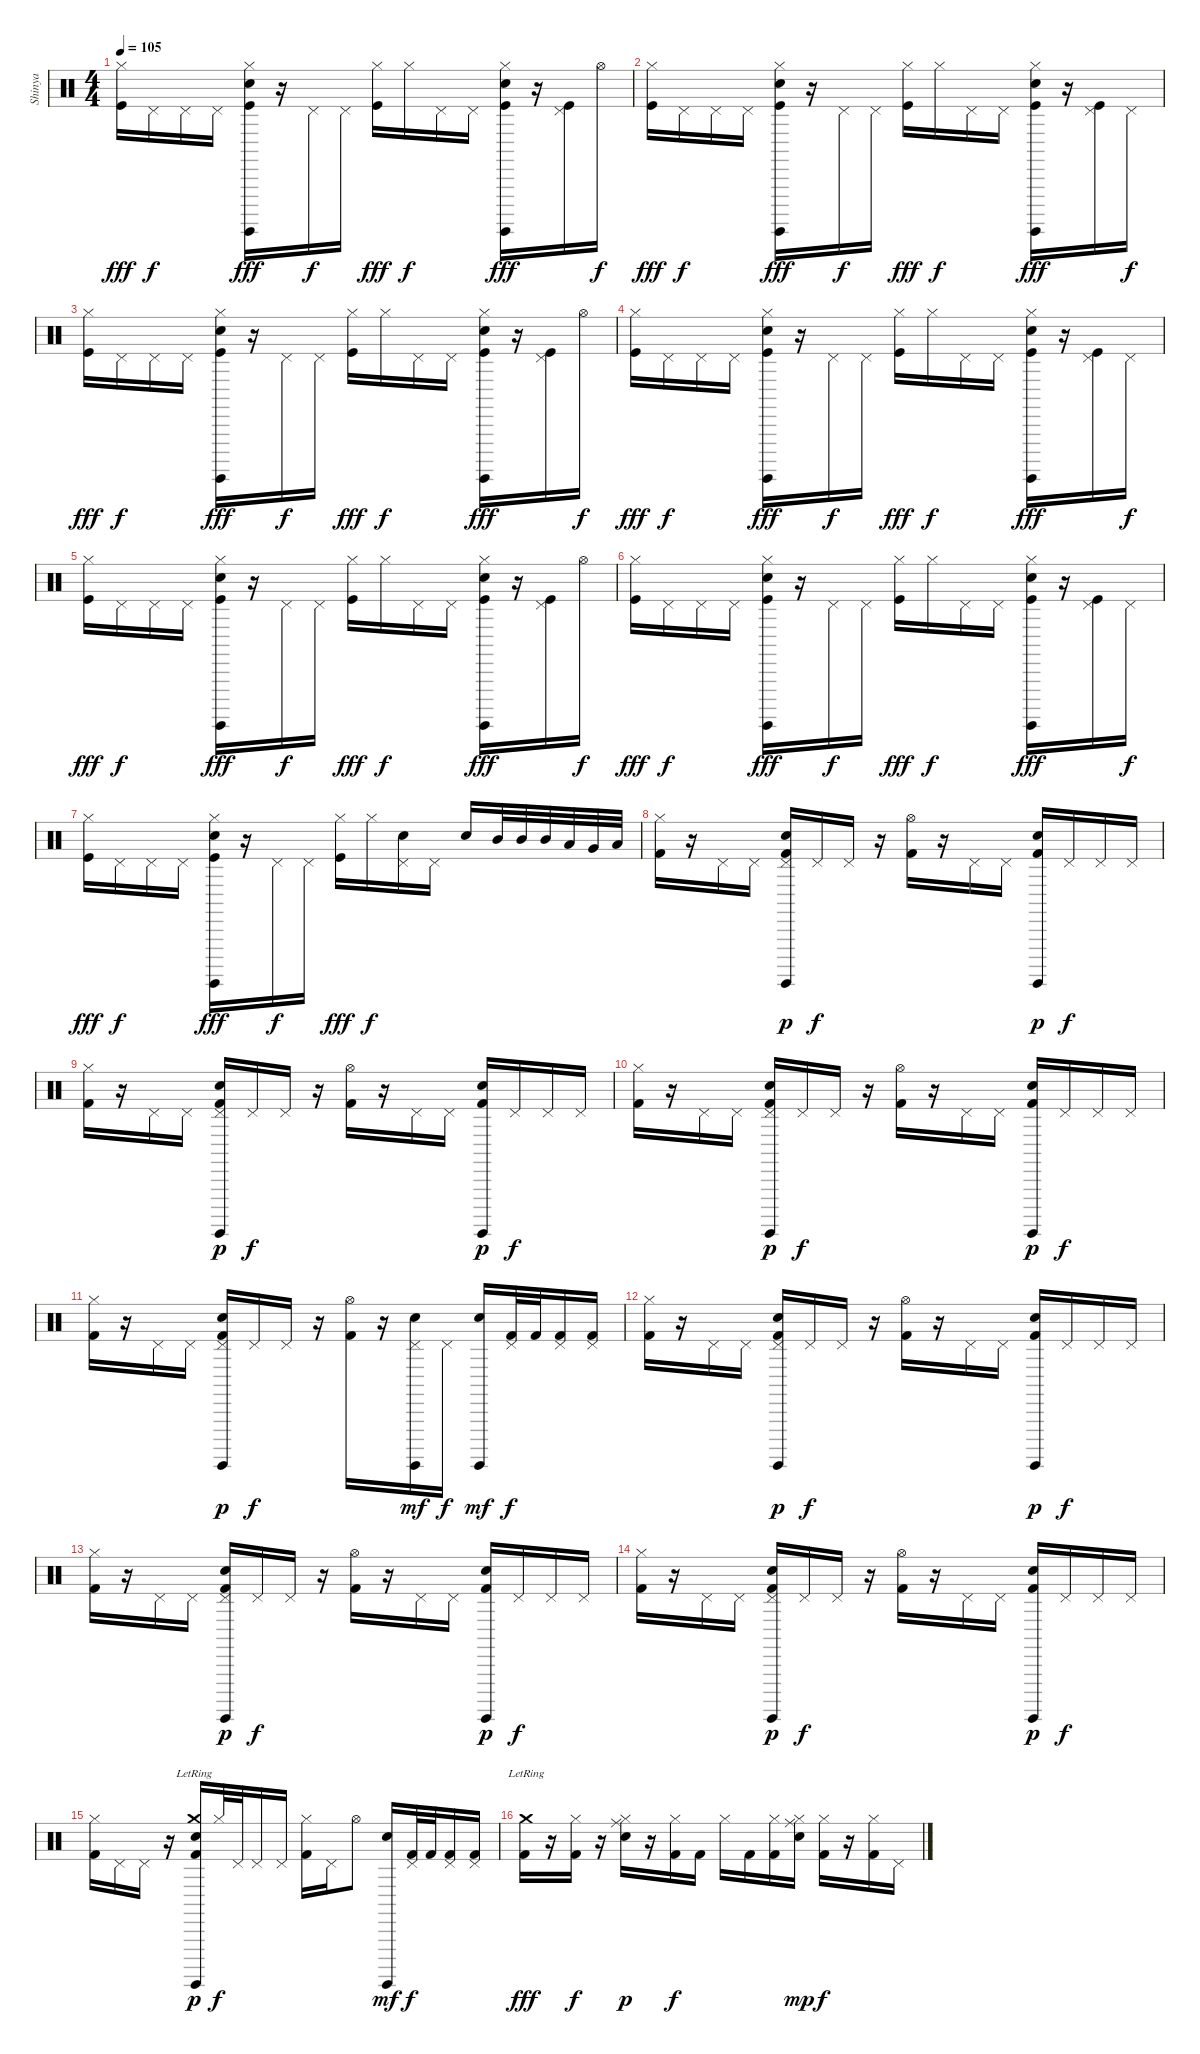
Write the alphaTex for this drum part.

\track ("Shinya" "Shinya") {instrument percussion}
\staff {score}
\articulation defaults
\ts (4 4)
\tempo 105
\clef neutral
\ks c
("Hi-Hat (closed)" "Kick (hit)").16{dy fff} "Pedal Hi-Hat (hit)".16{dy f} "Pedal Hi-Hat (hit)".16 "Pedal Hi-Hat (hit)".16 ("Hi-Hat (closed)" "Surdo (hit)" "Electric Snare (hit)" "Kick (hit)").16{dy fff} r.16 "Pedal Hi-Hat (hit)".16{dy f} "Pedal Hi-Hat (hit)".16 ("Hi-Hat (closed)" "Kick (hit)").16{dy fff} "Hi-Hat (closed)".16{dy f} "Pedal Hi-Hat (hit)".16 "Pedal Hi-Hat (hit)".16 ("Hi-Hat (closed)" "Surdo (hit)" "Electric Snare (hit)" "Kick (hit)").16{dy fff} r.16 ("Pedal Hi-Hat (hit)" "Kick (hit)").16 "Hi-Hat (open)".16{dy f} |
("Hi-Hat (closed)" "Kick (hit)").16{dy fff} "Pedal Hi-Hat (hit)".16{dy f} "Pedal Hi-Hat (hit)".16 "Pedal Hi-Hat (hit)".16 ("Hi-Hat (closed)" "Surdo (hit)" "Electric Snare (hit)" "Kick (hit)").16{dy fff} r.16 "Pedal Hi-Hat (hit)".16{dy f} "Pedal Hi-Hat (hit)".16 ("Hi-Hat (closed)" "Kick (hit)").16{dy fff} "Hi-Hat (closed)".16{dy f} "Pedal Hi-Hat (hit)".16 "Pedal Hi-Hat (hit)".16 ("Hi-Hat (closed)" "Surdo (hit)" "Electric Snare (hit)" "Kick (hit)").16{dy fff} r.16 ("Pedal Hi-Hat (hit)" "Kick (hit)").16 "Pedal Hi-Hat (hit)".16{dy f} |
("Hi-Hat (closed)" "Kick (hit)").16{dy fff} "Pedal Hi-Hat (hit)".16{dy f} "Pedal Hi-Hat (hit)".16 "Pedal Hi-Hat (hit)".16 ("Hi-Hat (closed)" "Surdo (hit)" "Electric Snare (hit)" "Kick (hit)").16{dy fff} r.16 "Pedal Hi-Hat (hit)".16{dy f} "Pedal Hi-Hat (hit)".16 ("Hi-Hat (closed)" "Kick (hit)").16{dy fff} "Hi-Hat (closed)".16{dy f} "Pedal Hi-Hat (hit)".16 "Pedal Hi-Hat (hit)".16 ("Hi-Hat (closed)" "Surdo (hit)" "Electric Snare (hit)" "Kick (hit)").16{dy fff} r.16 ("Pedal Hi-Hat (hit)" "Kick (hit)").16 "Hi-Hat (open)".16{dy f} |
("Hi-Hat (closed)" "Kick (hit)").16{dy fff} "Pedal Hi-Hat (hit)".16{dy f} "Pedal Hi-Hat (hit)".16 "Pedal Hi-Hat (hit)".16 ("Hi-Hat (closed)" "Surdo (hit)" "Electric Snare (hit)" "Kick (hit)").16{dy fff} r.16 "Pedal Hi-Hat (hit)".16{dy f} "Pedal Hi-Hat (hit)".16 ("Hi-Hat (closed)" "Kick (hit)").16{dy fff} "Hi-Hat (closed)".16{dy f} "Pedal Hi-Hat (hit)".16 "Pedal Hi-Hat (hit)".16 ("Hi-Hat (closed)" "Surdo (hit)" "Electric Snare (hit)" "Kick (hit)").16{dy fff} r.16 ("Pedal Hi-Hat (hit)" "Kick (hit)").16 "Pedal Hi-Hat (hit)".16{dy f} |
("Hi-Hat (closed)" "Kick (hit)").16{dy fff} "Pedal Hi-Hat (hit)".16{dy f} "Pedal Hi-Hat (hit)".16 "Pedal Hi-Hat (hit)".16 ("Hi-Hat (closed)" "Surdo (hit)" "Electric Snare (hit)" "Kick (hit)").16{dy fff} r.16 "Pedal Hi-Hat (hit)".16{dy f} "Pedal Hi-Hat (hit)".16 ("Hi-Hat (closed)" "Kick (hit)").16{dy fff} "Hi-Hat (closed)".16{dy f} "Pedal Hi-Hat (hit)".16 "Pedal Hi-Hat (hit)".16 ("Hi-Hat (closed)" "Surdo (hit)" "Electric Snare (hit)" "Kick (hit)").16{dy fff} r.16 ("Pedal Hi-Hat (hit)" "Kick (hit)").16 "Hi-Hat (open)".16{dy f} |
("Hi-Hat (closed)" "Kick (hit)").16{dy fff} "Pedal Hi-Hat (hit)".16{dy f} "Pedal Hi-Hat (hit)".16 "Pedal Hi-Hat (hit)".16 ("Hi-Hat (closed)" "Surdo (hit)" "Electric Snare (hit)" "Kick (hit)").16{dy fff} r.16 "Pedal Hi-Hat (hit)".16{dy f} "Pedal Hi-Hat (hit)".16 ("Hi-Hat (closed)" "Kick (hit)").16{dy fff} "Hi-Hat (closed)".16{dy f} "Pedal Hi-Hat (hit)".16 "Pedal Hi-Hat (hit)".16 ("Hi-Hat (closed)" "Surdo (hit)" "Electric Snare (hit)" "Kick (hit)").16{dy fff} r.16 ("Pedal Hi-Hat (hit)" "Kick (hit)").16 "Pedal Hi-Hat (hit)".16{dy f} |
("Hi-Hat (closed)" "Kick (hit)").16{dy fff} "Pedal Hi-Hat (hit)".16{dy f} "Pedal Hi-Hat (hit)".16 "Pedal Hi-Hat (hit)".16 ("Hi-Hat (closed)" "Surdo (hit)" "Electric Snare (hit)" "Kick (hit)").16{dy fff} r.16 "Pedal Hi-Hat (hit)".16{dy f} "Pedal Hi-Hat (hit)".16 ("Hi-Hat (closed)" "Kick (hit)").16{dy fff} "Hi-Hat (closed)".16{dy f} ("Pedal Hi-Hat (hit)" "Electric Snare (hit)").16 "Pedal Hi-Hat (hit)".16 "Electric Snare (hit)".16 "Mid Tom (hit)".32 "Mid Tom (hit)".32 "Mid Tom (hit)".32 "Low Tom (hit)".32 "Very Low Tom (hit)".32 "Low Floor Tom (hit)".32 |
\section ("" "")
("Hi-Hat (closed)" "Kick (hit) 2").16 r.16 "Pedal Hi-Hat (hit)".16 "Pedal Hi-Hat (hit)".16 ("Pedal Hi-Hat (hit)" "Electric Snare (hit)" "Surdo (hit)" "Kick (hit) 2").16{dy p} "Pedal Hi-Hat (hit)".16{dy f} "Pedal Hi-Hat (hit)".16 r.16 ("Hi-Hat (open)" "Kick (hit) 2").16 r.16 "Pedal Hi-Hat (hit)".16 "Pedal Hi-Hat (hit)".16 ("Electric Snare (hit)" "Surdo (hit)" "Kick (hit) 2").16{dy p} "Pedal Hi-Hat (hit)".16{dy f} "Pedal Hi-Hat (hit)".16 "Pedal Hi-Hat (hit)".16 |
("Hi-Hat (closed)" "Kick (hit) 2").16 r.16 "Pedal Hi-Hat (hit)".16 "Pedal Hi-Hat (hit)".16 ("Pedal Hi-Hat (hit)" "Electric Snare (hit)" "Surdo (hit)" "Kick (hit) 2").16{dy p} "Pedal Hi-Hat (hit)".16{dy f} "Pedal Hi-Hat (hit)".16 r.16 ("Hi-Hat (open)" "Kick (hit) 2").16 r.16 "Pedal Hi-Hat (hit)".16 "Pedal Hi-Hat (hit)".16 ("Electric Snare (hit)" "Surdo (hit)" "Kick (hit) 2").16{dy p} "Pedal Hi-Hat (hit)".16{dy f} "Pedal Hi-Hat (hit)".16 "Pedal Hi-Hat (hit)".16 |
("Hi-Hat (closed)" "Kick (hit) 2").16 r.16 "Pedal Hi-Hat (hit)".16 "Pedal Hi-Hat (hit)".16 ("Pedal Hi-Hat (hit)" "Electric Snare (hit)" "Surdo (hit)" "Kick (hit) 2").16{dy p} "Pedal Hi-Hat (hit)".16{dy f} "Pedal Hi-Hat (hit)".16 r.16 ("Hi-Hat (open)" "Kick (hit) 2").16 r.16 "Pedal Hi-Hat (hit)".16 "Pedal Hi-Hat (hit)".16 ("Electric Snare (hit)" "Surdo (hit)" "Kick (hit) 2").16{dy p} "Pedal Hi-Hat (hit)".16{dy f} "Pedal Hi-Hat (hit)".16 "Pedal Hi-Hat (hit)".16 |
("Hi-Hat (closed)" "Kick (hit) 2").16 r.16 "Pedal Hi-Hat (hit)".16 "Pedal Hi-Hat (hit)".16 ("Pedal Hi-Hat (hit)" "Electric Snare (hit)" "Surdo (hit)" "Kick (hit) 2").16{dy p} "Pedal Hi-Hat (hit)".16{dy f} "Pedal Hi-Hat (hit)".16 r.16 ("Hi-Hat (open)" "Kick (hit) 2").16 r.16 ("Pedal Hi-Hat (hit)" "Electric Snare (hit)" "Surdo (hit)").16{dy mf} "Pedal Hi-Hat (hit)".16{dy f} ("Electric Snare (hit)" "Surdo (hit)").16{dy mf} ("Pedal Hi-Hat (hit)" "Kick (hit) 2").32{dy f} "Kick (hit) 2".32 ("Pedal Hi-Hat (hit)" "Kick (hit) 2").16 ("Pedal Hi-Hat (hit)" "Kick (hit) 2").16 |
("Hi-Hat (closed)" "Kick (hit) 2").16 r.16 "Pedal Hi-Hat (hit)".16 "Pedal Hi-Hat (hit)".16 ("Pedal Hi-Hat (hit)" "Electric Snare (hit)" "Surdo (hit)" "Kick (hit) 2").16{dy p} "Pedal Hi-Hat (hit)".16{dy f} "Pedal Hi-Hat (hit)".16 r.16 ("Hi-Hat (open)" "Kick (hit) 2").16 r.16 "Pedal Hi-Hat (hit)".16 "Pedal Hi-Hat (hit)".16 ("Electric Snare (hit)" "Surdo (hit)" "Kick (hit) 2").16{dy p} "Pedal Hi-Hat (hit)".16{dy f} "Pedal Hi-Hat (hit)".16 "Pedal Hi-Hat (hit)".16 |
("Hi-Hat (closed)" "Kick (hit) 2").16 r.16 "Pedal Hi-Hat (hit)".16 "Pedal Hi-Hat (hit)".16 ("Pedal Hi-Hat (hit)" "Electric Snare (hit)" "Surdo (hit)" "Kick (hit) 2").16{dy p} "Pedal Hi-Hat (hit)".16{dy f} "Pedal Hi-Hat (hit)".16 r.16 ("Hi-Hat (open)" "Kick (hit) 2").16 r.16 "Pedal Hi-Hat (hit)".16 "Pedal Hi-Hat (hit)".16 ("Electric Snare (hit)" "Surdo (hit)" "Kick (hit) 2").16{dy p} "Pedal Hi-Hat (hit)".16{dy f} "Pedal Hi-Hat (hit)".16 "Pedal Hi-Hat (hit)".16 |
("Hi-Hat (closed)" "Kick (hit) 2").16 r.16 "Pedal Hi-Hat (hit)".16 "Pedal Hi-Hat (hit)".16 ("Pedal Hi-Hat (hit)" "Electric Snare (hit)" "Surdo (hit)" "Kick (hit) 2").16{dy p} "Pedal Hi-Hat (hit)".16{dy f} "Pedal Hi-Hat (hit)".16 r.16 ("Hi-Hat (open)" "Kick (hit) 2").16 r.16 "Pedal Hi-Hat (hit)".16 "Pedal Hi-Hat (hit)".16 ("Electric Snare (hit)" "Surdo (hit)" "Kick (hit) 2").16{dy p} "Pedal Hi-Hat (hit)".16{dy f} "Pedal Hi-Hat (hit)".16 "Pedal Hi-Hat (hit)".16 |
("Hi-Hat (closed)" "Kick (hit) 2").16 "Pedal Hi-Hat (hit)".16 "Pedal Hi-Hat (hit)".16 r.16 ("Crash medium (hit)"{lr} "Electric Snare (hit)" "Surdo (hit)" "Kick (hit) 2").16{dy p} "Hi-Hat (closed)".32{dy f} "Pedal Hi-Hat (hit)".32 "Pedal Hi-Hat (hit)".16 "Pedal Hi-Hat (hit)".16 ("Hi-Hat (closed)" "Kick (hit) 2").16 "Pedal Hi-Hat (hit)".16 "Hi-Hat (open)".8 ("Electric Snare (hit)" "Surdo (hit)").16{dy mf} ("Pedal Hi-Hat (hit)" "Kick (hit) 2").32{dy f} "Kick (hit) 2".32 ("Pedal Hi-Hat (hit)" "Kick (hit) 2").16 ("Pedal Hi-Hat (hit)" "Kick (hit) 2").16 |
\section ("" "")
("Crash medium (hit)"{lr} "Kick (hit) 2").16{dy fff} r.16 ("Hi-Hat (closed)" "Kick (hit) 2").16{dy f} r.16 ("Ride (middle)" "Hi-Hat (closed)" "Electric Snare (hit)").16{dy p} r.16 ("Hi-Hat (closed)" "Kick (hit) 2").16{dy f} "Kick (hit) 2".16 "Hi-Hat (closed)".16 "Kick (hit) 2".16 ("Hi-Hat (closed)" "Kick (hit) 2").16 ("Ride (middle)" "Hi-Hat (closed)" "Electric Snare (hit)").16{dy mp} ("Hi-Hat (closed)" "Kick (hit) 2").16{dy f} r.16 ("Hi-Hat (closed)" "Kick (hit) 2").16 "Pedal Hi-Hat (hit)".16
